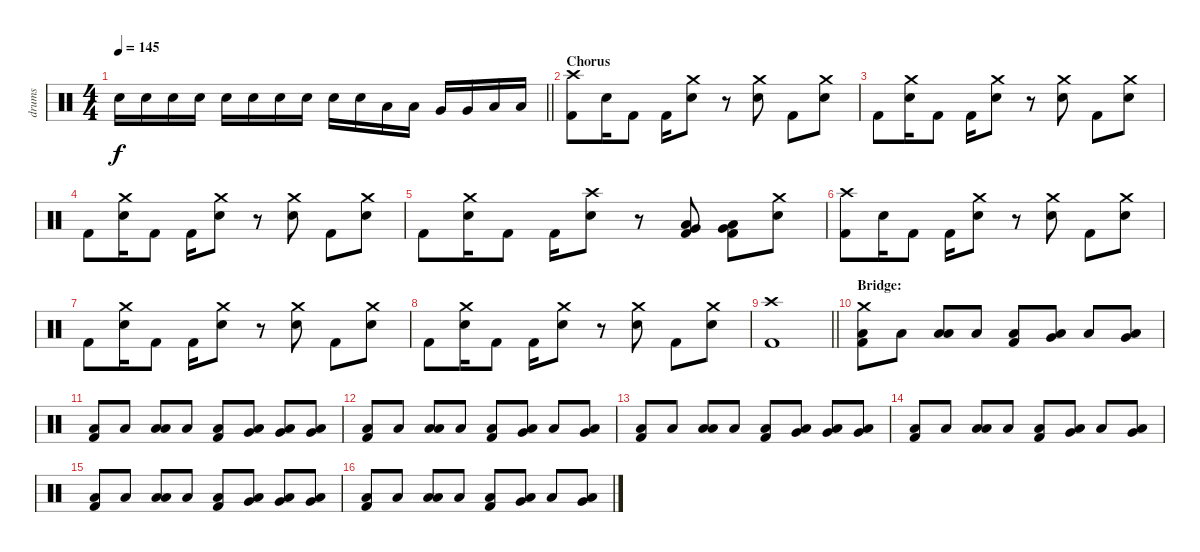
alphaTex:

\track ("drums" "drums") {instrument percussion}
\staff {score}
\articulation defaults
\ts (4 4)
\tempo 145
\clef neutral
\barLineRight lightlight
\ks c "Electric Snare (hit)".16{dy f volume 8} "Electric Snare (hit)".16{volume 13} "Electric Snare (hit)".16 "Electric Snare (hit)".16 "Electric Snare (hit)".16 "Electric Snare (hit)".16 "Electric Snare (hit)".16 "Electric Snare (hit)".16 "Electric Snare (hit)".16 "Electric Snare (hit)".16 "Low Tom (hit)".16 "Low Tom (hit)".16 "Very Low Tom (hit)".16 "Very Low Tom (hit)".16 "Low Floor Tom (hit)".16 "Low Floor Tom (hit)".16
|
\section ("" "Chorus")
("Crash high (hit)" "Kick (hit) 2").8 "Electric Snare (hit)".16 "Kick (hit) 2".8 "Kick (hit) 2".16 ("Crash medium (hit)" "Electric Snare (hit)").8 r.8 ("Crash medium (hit)" "Electric Snare (hit)").8 "Kick (hit) 2".8 ("Crash medium (hit)" "Electric Snare (hit)").8 |
"Kick (hit) 2".8 ("Crash medium (hit)" "Electric Snare (hit)").16 "Kick (hit) 2".8 "Kick (hit) 2".16 ("Crash medium (hit)" "Electric Snare (hit)").8 r.8 ("Crash medium (hit)" "Electric Snare (hit)").8 "Kick (hit) 2".8 ("Crash medium (hit)" "Electric Snare (hit)").8 |
"Kick (hit) 2".8 ("Crash medium (hit)" "Electric Snare (hit)").16 "Kick (hit) 2".8 "Kick (hit) 2".16 ("Crash medium (hit)" "Electric Snare (hit)").8 r.8 ("Crash medium (hit)" "Electric Snare (hit)").8 "Kick (hit) 2".8 ("Crash medium (hit)" "Electric Snare (hit)").8 |
"Kick (hit) 2".8 ("Crash medium (hit)" "Electric Snare (hit)").16 "Kick (hit) 2".8 "Kick (hit) 2".16 ("Crash high (hit)" "Electric Snare (hit)").8 r.8 ("Very Low Tom (hit)" "Low Floor Tom (hit)" "Kick (hit) 2").8 ("Very Low Tom (hit)" "Low Floor Tom (hit)" "Kick (hit) 2").8 ("Crash medium (hit)" "Electric Snare (hit)").8 |
("Crash high (hit)" "Kick (hit) 2").8 "Electric Snare (hit)".16 "Kick (hit) 2".8 "Kick (hit) 2".16 ("Crash medium (hit)" "Electric Snare (hit)").8 r.8 ("Crash medium (hit)" "Electric Snare (hit)").8 "Kick (hit) 2".8 ("Crash medium (hit)" "Electric Snare (hit)").8 |
"Kick (hit) 2".8 ("Crash medium (hit)" "Electric Snare (hit)").16 "Kick (hit) 2".8 "Kick (hit) 2".16 ("Crash medium (hit)" "Electric Snare (hit)").8 r.8 ("Crash medium (hit)" "Electric Snare (hit)").8 "Kick (hit) 2".8 ("Crash medium (hit)" "Electric Snare (hit)").8 |
"Kick (hit) 2".8 ("Crash medium (hit)" "Electric Snare (hit)").16 "Kick (hit) 2".8 "Kick (hit) 2".16 ("Crash medium (hit)" "Electric Snare (hit)").8 r.8 ("Crash medium (hit)" "Electric Snare (hit)").8 "Kick (hit) 2".8 ("Crash medium (hit)" "Electric Snare (hit)").8 |
\barLineRight lightlight
("Crash high (hit)" "Kick (hit) 2").1 |
\section ("" "Bridge:")
("Crash medium (hit)" "Low Floor Tom (hit)" "Kick (hit) 2").8 "Low Floor Tom (hit)".8 ("Low Tom (hit)" "Low Floor Tom (hit)").8 "Low Floor Tom (hit)".8 ("Low Floor Tom (hit)" "Kick (hit) 2").8 ("Very Low Tom (hit)" "Low Floor Tom (hit)").8 "Low Floor Tom (hit)".8 ("Very Low Tom (hit)" "Low Floor Tom (hit)").8 |
("Low Floor Tom (hit)" "Kick (hit) 2").8 "Low Floor Tom (hit)".8 ("Low Tom (hit)" "Low Floor Tom (hit)").8 "Low Floor Tom (hit)".8 ("Low Floor Tom (hit)" "Kick (hit) 2").8 ("Very Low Tom (hit)" "Low Floor Tom (hit)").8 ("Very Low Tom (hit)" "Low Floor Tom (hit)").8 ("Very Low Tom (hit)" "Low Floor Tom (hit)").8 |
("Low Floor Tom (hit)" "Kick (hit) 2").8 "Low Floor Tom (hit)".8 ("Low Tom (hit)" "Low Floor Tom (hit)").8 "Low Floor Tom (hit)".8 ("Low Floor Tom (hit)" "Kick (hit) 2").8 ("Very Low Tom (hit)" "Low Floor Tom (hit)").8 "Low Floor Tom (hit)".8 ("Very Low Tom (hit)" "Low Floor Tom (hit)").8 |
("Low Floor Tom (hit)" "Kick (hit) 2").8 "Low Floor Tom (hit)".8 ("Low Tom (hit)" "Low Floor Tom (hit)").8 "Low Floor Tom (hit)".8 ("Low Floor Tom (hit)" "Kick (hit) 2").8 ("Very Low Tom (hit)" "Low Floor Tom (hit)").8 ("Very Low Tom (hit)" "Low Floor Tom (hit)").8 ("Very Low Tom (hit)" "Low Floor Tom (hit)").8 |
("Low Floor Tom (hit)" "Kick (hit) 2").8 "Low Floor Tom (hit)".8 ("Low Tom (hit)" "Low Floor Tom (hit)").8 "Low Floor Tom (hit)".8 ("Low Floor Tom (hit)" "Kick (hit) 2").8 ("Very Low Tom (hit)" "Low Floor Tom (hit)").8 "Low Floor Tom (hit)".8 ("Very Low Tom (hit)" "Low Floor Tom (hit)").8 |
("Low Floor Tom (hit)" "Kick (hit) 2").8 "Low Floor Tom (hit)".8 ("Low Tom (hit)" "Low Floor Tom (hit)").8 "Low Floor Tom (hit)".8 ("Low Floor Tom (hit)" "Kick (hit) 2").8 ("Very Low Tom (hit)" "Low Floor Tom (hit)").8 ("Very Low Tom (hit)" "Low Floor Tom (hit)").8 ("Very Low Tom (hit)" "Low Floor Tom (hit)").8 |
("Low Floor Tom (hit)" "Kick (hit) 2").8 "Low Floor Tom (hit)".8 ("Low Tom (hit)" "Low Floor Tom (hit)").8 "Low Floor Tom (hit)".8 ("Low Floor Tom (hit)" "Kick (hit) 2").8 ("Very Low Tom (hit)" "Low Floor Tom (hit)").8 "Low Floor Tom (hit)".8 ("Very Low Tom (hit)" "Low Floor Tom (hit)").8
